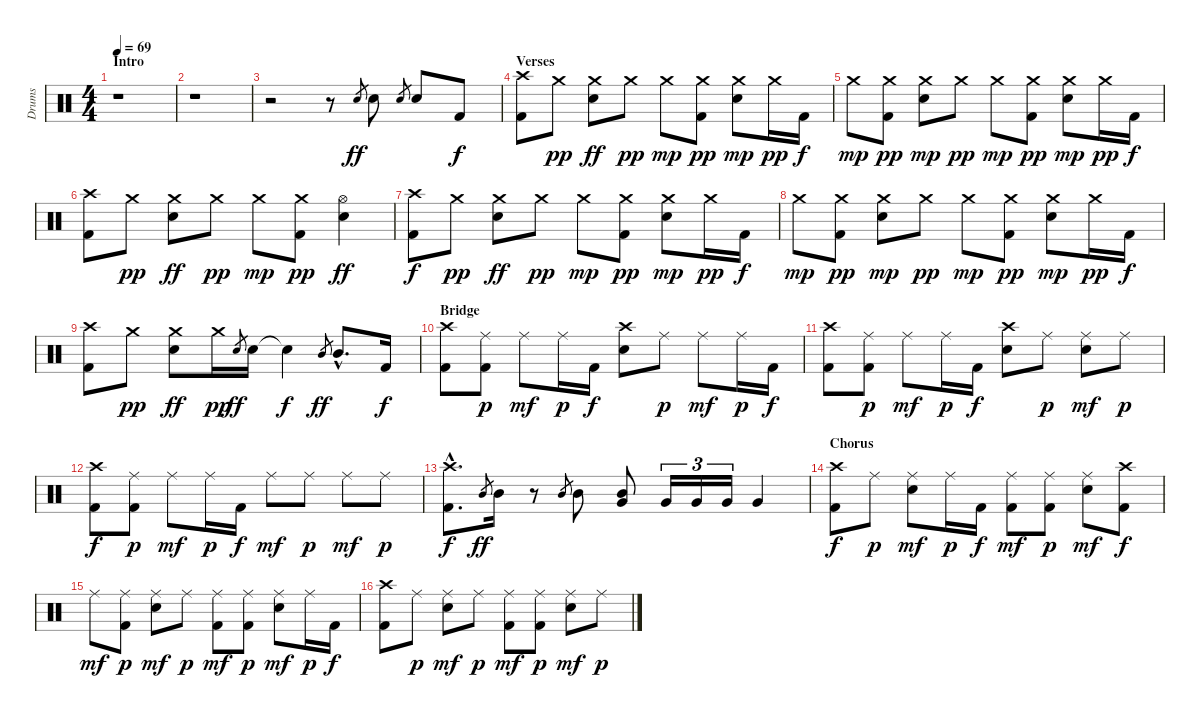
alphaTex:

\track ("Drums" "Drums") {instrument percussion}
\staff {score}
\articulation defaults
\ts (4 4)
\section ("" "Intro")
\tempo 69
\clef neutral
\ks c
r.1{dy ff} |
r.1 |
r.2 r.8 "Snare (hit) 2".8{gr} "Snare (hit) 2".8 "Snare (hit) 2".8{gr} "Snare (hit) 2".8 "Kick (hit) 2".8{dy f} |
\section ("" "Verses")
("Crash high (hit)" "Kick (hit) 2").8 "Crash medium (hit)".8{dy pp} ("Crash medium (hit)" "Snare (hit) 2").8{dy ff} "Crash medium (hit)".8{dy pp} "Crash medium (hit)".8{dy mp} ("Crash medium (hit)" "Kick (hit) 2").8{dy pp} ("Snare (hit) 2" "Crash medium (hit)").8{dy mp} "Crash medium (hit)".16{dy pp} "Kick (hit) 2".16{dy f} |
"Crash medium (hit)".8{dy mp} ("Crash medium (hit)" "Kick (hit) 2").8{dy pp} ("Snare (hit) 2" "Crash medium (hit)").8{dy mp} "Crash medium (hit)".8{dy pp} "Crash medium (hit)".8{dy mp} ("Crash medium (hit)" "Kick (hit) 2").8{dy pp} ("Snare (hit) 2" "Crash medium (hit)").8{dy mp} "Crash medium (hit)".16{dy pp} "Kick (hit) 2".16{dy f} |
("Crash high (hit)" "Kick (hit) 2").8 "Crash medium (hit)".8{dy pp} ("Crash medium (hit)" "Snare (hit) 2").8{dy ff} "Crash medium (hit)".8{dy pp} "Crash medium (hit)".8{dy mp} ("Crash medium (hit)" "Kick (hit) 2").8{dy pp} ("Hi-Hat (open)" "Snare (hit) 2").4{dy ff} |
("Crash high (hit)" "Kick (hit) 2").8{dy f} "Crash medium (hit)".8{dy pp} ("Crash medium (hit)" "Snare (hit) 2").8{dy ff} "Crash medium (hit)".8{dy pp} "Crash medium (hit)".8{dy mp} ("Crash medium (hit)" "Kick (hit) 2").8{dy pp} ("Snare (hit) 2" "Crash medium (hit)").8{dy mp} "Crash medium (hit)".16{dy pp} "Kick (hit) 2".16{dy f} |
"Crash medium (hit)".8{dy mp} ("Crash medium (hit)" "Kick (hit) 2").8{dy pp} ("Snare (hit) 2" "Crash medium (hit)").8{dy mp} "Crash medium (hit)".8{dy pp} "Crash medium (hit)".8{dy mp} ("Crash medium (hit)" "Kick (hit) 2").8{dy pp} ("Snare (hit) 2" "Crash medium (hit)").8{dy mp} "Crash medium (hit)".16{dy pp} "Kick (hit) 2".16{dy f} |
("Crash high (hit)" "Kick (hit) 2").8 "Crash medium (hit)".8{dy pp} ("Crash medium (hit)" "Snare (hit) 2").8{dy ff} "Crash medium (hit)".16{dy pp} "Snare (hit) 2".8{gr dy ff} "Snare (hit) 2".16 "Snare (hit)"{t}.4{dy f} "Mid Tom (hit)".8{gr dy ff} "Mid Tom (hit)"{hac}.8{d} "Kick (hit) 2".16{dy f} |
\section ("" "Bridge")
("Crash high (hit)" "Kick (hit) 2").8 ("Ride (middle)" "Kick (hit) 2").8{dy p} "Ride (middle)".8{dy mf} "Ride (middle)".16{dy p} "Kick (hit) 2".16{dy f} ("Snare (hit) 2" "Crash high (hit)").8 "Ride (middle)".8{dy p} "Ride (middle)".8{dy mf} "Ride (middle)".16{dy p} "Kick (hit) 2".16{dy f} |
("Crash high (hit)" "Kick (hit) 2").8 ("Ride (middle)" "Kick (hit) 2").8{dy p} "Ride (middle)".8{dy mf} "Ride (middle)".16{dy p} "Kick (hit) 2".16{dy f} ("Snare (hit) 2" "Crash high (hit)").8 "Ride (middle)".8{dy p} ("Ride (middle)" "Snare (hit) 2").8{dy mf} "Ride (middle)".8{dy p} |
("Crash high (hit)" "Kick (hit) 2").8{dy f} ("Ride (middle)" "Kick (hit) 2").8{dy p} "Ride (middle)".8{dy mf} "Ride (middle)".16{dy p} "Kick (hit) 2".16{dy f} "Ride (middle)".8{dy mf} "Ride (middle)".8{dy p} "Ride (middle)".8{dy mf} "Ride (middle)".8{dy p} |
("Crash high (hit)"{hac} "Kick (hit) 2"{hac}).8{d dy f} "Mid Tom (hit)".8{gr dy ff} "Mid Tom (hit)".16 r.8 "Mid Tom (hit)".8{gr} "Mid Tom (hit)".8 ("Mid Tom (hit)" "Very Low Tom (hit)").8 "Very Low Tom (hit)".16{tu (3 2)} "Very Low Tom (hit)".16{tu (3 2)} "Very Low Tom (hit)".16{tu (3 2)} "Very Low Tom (hit)".4 |
\section ("" "Chorus")
("Crash high (hit)" "Kick (hit) 2").8{dy f} "Ride (middle)".8{dy p} ("Snare (hit) 2" "Ride (middle)").8{dy mf} "Ride (middle)".16{dy p} "Kick (hit) 2".16{dy f} ("Ride (middle)" "Kick (hit) 2").8{dy mf} ("Kick (hit) 2" "Ride (middle)").8{dy p} ("Snare (hit) 2" "Ride (middle)").8{dy mf} ("Kick (hit) 2" "Crash high (hit)").8{dy f} |
"Ride (middle)".8{dy mf} ("Kick (hit) 2" "Ride (middle)").8{dy p} ("Snare (hit) 2" "Ride (middle)").8{dy mf} "Ride (middle)".8{dy p} ("Ride (middle)" "Kick (hit) 2").8{dy mf} ("Kick (hit) 2" "Ride (middle)").8{dy p} ("Snare (hit) 2" "Ride (middle)").8{dy mf} "Ride (middle)".16{dy p} "Kick (hit) 2".16{dy f} |
("Crash high (hit)" "Kick (hit) 2").8 "Ride (middle)".8{dy p} ("Snare (hit) 2" "Ride (middle)").8{dy mf} "Ride (middle)".8{dy p} ("Ride (middle)" "Kick (hit) 2").8{dy mf} ("Kick (hit) 2" "Ride (middle)").8{dy p} ("Snare (hit) 2" "Ride (middle)").8{dy mf} "Ride (middle)".8{dy p}
